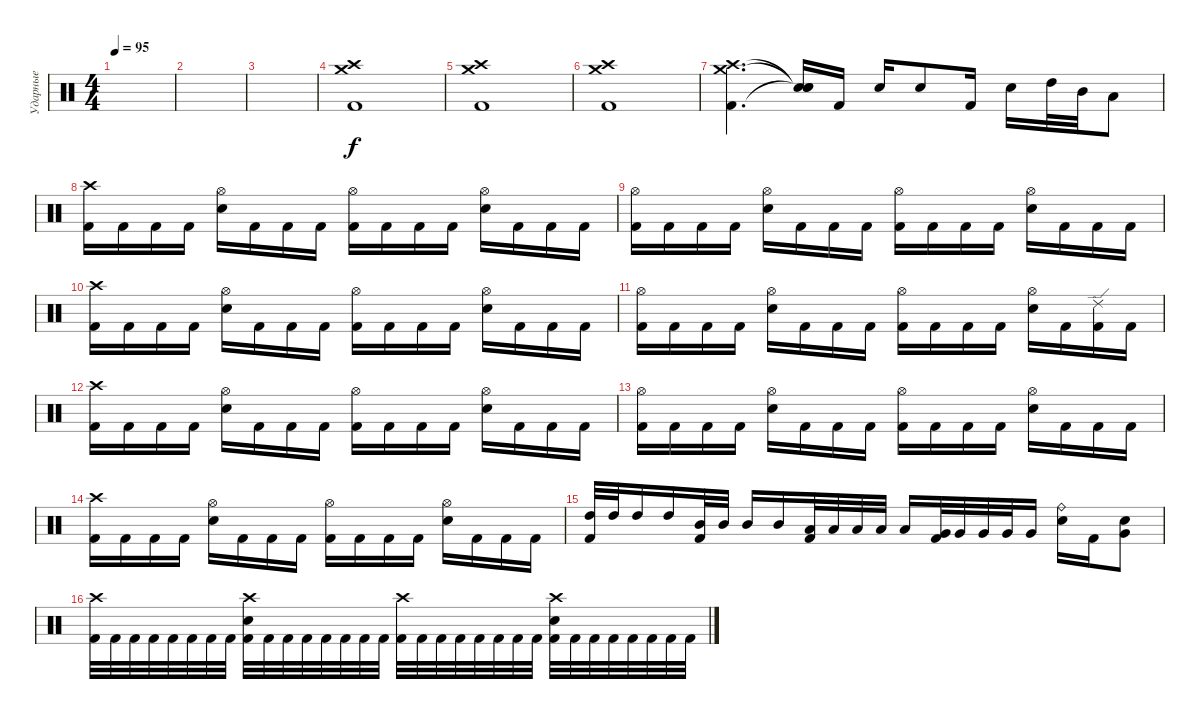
\track ("Ударные" "Ударные") {instrument percussion}
\staff
\articulation defaults
\ts (4 4)
\tempo 95
\clef neutral
\ks c
|
|
|
("Crash high (hit)" "Crash medium (hit)" "Kick (hit) 2").1 |
("Crash high (hit)" "Crash medium (hit)" "Kick (hit) 2").1 |
("Crash high (hit)" "Crash medium (hit)" "Kick (hit) 2").1 |
("Crash high (hit)" "Crash medium (hit)" "Kick (hit) 2").4{d} ("Snare (hit)"{t} "Snare (hit)"{t} "Snare (hit)"{t}).16 "Kick (hit) 2".16 "Electric Snare (hit)".16 "Electric Snare (hit)".8 "Kick (hit) 2".16 "Electric Snare (hit)".16 "High Tom (hit)".32 "Mid Tom (hit)".32 "Low Tom (hit)".8 |
("Crash high (hit)" "Kick (hit) 2").16 "Kick (hit) 2".16 "Kick (hit) 2".16 "Kick (hit) 2".16 ("Hi-Hat (open)" "Electric Snare (hit)").16 "Kick (hit) 2".16 "Kick (hit) 2".16 "Kick (hit) 2".16 ("Hi-Hat (open)" "Kick (hit) 2").16 "Kick (hit) 2".16 "Kick (hit) 2".16 "Kick (hit) 2".16 ("Hi-Hat (open)" "Electric Snare (hit)").16 "Kick (hit) 2".16 "Kick (hit) 2".16 "Kick (hit) 2".16 |
("Hi-Hat (open)" "Kick (hit) 2").16 "Kick (hit) 2".16 "Kick (hit) 2".16 "Kick (hit) 2".16 ("Hi-Hat (open)" "Electric Snare (hit)").16 "Kick (hit) 2".16 "Kick (hit) 2".16 "Kick (hit) 2".16 ("Hi-Hat (open)" "Kick (hit) 2").16 "Kick (hit) 2".16 "Kick (hit) 2".16 "Kick (hit) 2".16 ("Hi-Hat (open)" "Electric Snare (hit)").16 "Kick (hit) 2".16 "Kick (hit) 2".16 "Kick (hit) 2".16 |
("Crash high (hit)" "Kick (hit) 2").16 "Kick (hit) 2".16 "Kick (hit) 2".16 "Kick (hit) 2".16 ("Hi-Hat (open)" "Electric Snare (hit)").16 "Kick (hit) 2".16 "Kick (hit) 2".16 "Kick (hit) 2".16 ("Hi-Hat (open)" "Kick (hit) 2").16 "Kick (hit) 2".16 "Kick (hit) 2".16 "Kick (hit) 2".16 ("Hi-Hat (open)" "Electric Snare (hit)").16 "Kick (hit) 2".16 "Kick (hit) 2".16 "Kick (hit) 2".16 |
("Hi-Hat (open)" "Kick (hit) 2").16 "Kick (hit) 2".16 "Kick (hit) 2".16 "Kick (hit) 2".16 ("Hi-Hat (open)" "Electric Snare (hit)").16 "Kick (hit) 2".16 "Kick (hit) 2".16 "Kick (hit) 2".16 ("Hi-Hat (open)" "Kick (hit) 2").16 "Kick (hit) 2".16 "Kick (hit) 2".16 "Kick (hit) 2".16 ("Hi-Hat (open)" "Electric Snare (hit)").16 "Kick (hit) 2".16 ("Ride (edge) 2" "Kick (hit) 2").16 "Kick (hit) 2".16 |
("Crash high (hit)" "Kick (hit) 2").16 "Kick (hit) 2".16 "Kick (hit) 2".16 "Kick (hit) 2".16 ("Hi-Hat (open)" "Electric Snare (hit)").16 "Kick (hit) 2".16 "Kick (hit) 2".16 "Kick (hit) 2".16 ("Hi-Hat (open)" "Kick (hit) 2").16 "Kick (hit) 2".16 "Kick (hit) 2".16 "Kick (hit) 2".16 ("Hi-Hat (open)" "Electric Snare (hit)").16 "Kick (hit) 2".16 "Kick (hit) 2".16 "Kick (hit) 2".16 |
("Hi-Hat (open)" "Kick (hit) 2").16 "Kick (hit) 2".16 "Kick (hit) 2".16 "Kick (hit) 2".16 ("Hi-Hat (open)" "Electric Snare (hit)").16 "Kick (hit) 2".16 "Kick (hit) 2".16 "Kick (hit) 2".16 ("Hi-Hat (open)" "Kick (hit) 2").16 "Kick (hit) 2".16 "Kick (hit) 2".16 "Kick (hit) 2".16 ("Hi-Hat (open)" "Electric Snare (hit)").16 "Kick (hit) 2".16 "Kick (hit) 2".16 "Kick (hit) 2".16 |
("Crash high (hit)" "Kick (hit) 2").16 "Kick (hit) 2".16 "Kick (hit) 2".16 "Kick (hit) 2".16 ("Hi-Hat (open)" "Electric Snare (hit)").16 "Kick (hit) 2".16 "Kick (hit) 2".16 "Kick (hit) 2".16 ("Hi-Hat (open)" "Kick (hit) 2").16 "Kick (hit) 2".16 "Kick (hit) 2".16 "Kick (hit) 2".16 ("Hi-Hat (open)" "Electric Snare (hit)").16 "Kick (hit) 2".16 "Kick (hit) 2".16 "Kick (hit) 2".16 |
("High Tom (hit)" "Kick (hit) 2").32 "High Tom (hit)".32 "High Tom (hit)".16 "High Tom (hit)".16 ("Mid Tom (hit)" "Kick (hit) 2").32 "Mid Tom (hit)".32 "Mid Tom (hit)".16 "Mid Tom (hit)".16 ("Low Tom (hit)" "Kick (hit) 2").32 "Low Tom (hit)".32 "Low Tom (hit)".32 "Low Tom (hit)".32 "Low Tom (hit)".16 ("Very Low Tom (hit)" "Kick (hit) 2").32 "Very Low Tom (hit)".32 "Very Low Tom (hit)".32 "Very Low Tom (hit)".32 "Very Low Tom (hit)".16 ("Ride (bell)" "Electric Snare (hit)").16 "Kick (hit) 2".16 ("Electric Snare (hit)" "Very Low Tom (hit)").8 |
("Crash high (hit)" "Kick (hit) 2").32 "Kick (hit) 2".32 "Kick (hit) 2".32 "Kick (hit) 2".32 "Kick (hit) 2".32 "Kick (hit) 2".32 "Kick (hit) 2".32 "Kick (hit) 2".32 ("Crash high (hit)" "Electric Snare (hit)" "Kick (hit) 2").32 "Kick (hit) 2".32 "Kick (hit) 2".32 "Kick (hit) 2".32 "Kick (hit) 2".32 "Kick (hit) 2".32 "Kick (hit) 2".32 "Kick (hit) 2".32 ("Crash high (hit)" "Kick (hit) 2").32 "Kick (hit) 2".32 "Kick (hit) 2".32 "Kick (hit) 2".32 "Kick (hit) 2".32 "Kick (hit) 2".32 "Kick (hit) 2".32 "Kick (hit) 2".32 ("Crash high (hit)" "Electric Snare (hit)" "Kick (hit) 2").32 "Kick (hit) 2".32 "Kick (hit) 2".32 "Kick (hit) 2".32 "Kick (hit) 2".32 "Kick (hit) 2".32 "Kick (hit) 2".32 "Kick (hit) 2".32
